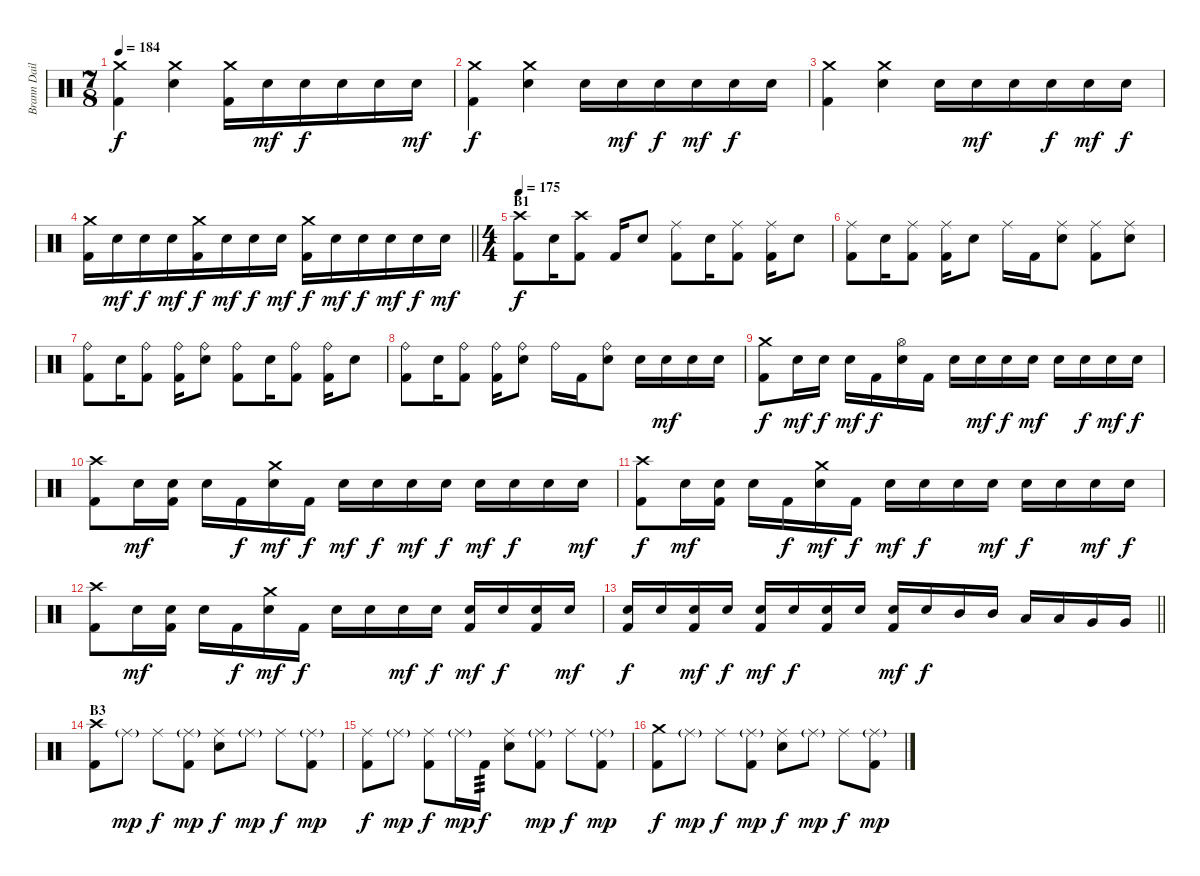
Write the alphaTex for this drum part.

\track ("Brann Dailor" "Brann Dail") {instrument percussion}
\staff {score}
\articulation defaults
\ts (7 8)
\tempo 184
\clef neutral
\ks c
("Crash medium (hit)" "Kick (hit) 2").4{dy f} ("Crash medium (hit)" "Snare (hit) 2").4 ("Crash medium (hit)" "Kick (hit) 2").16 "Snare (hit) 2".16{dy mf} "Snare (hit) 2".16{dy f} "Snare (hit) 2".16 "Snare (hit) 2".16 "Snare (hit) 2".16{dy mf} |
("Crash medium (hit)" "Kick (hit) 2").4{dy f} ("Crash medium (hit)" "Snare (hit) 2").4 "Snare (hit) 2".16 "Snare (hit) 2".16{dy mf} "Snare (hit) 2".16{dy f} "Snare (hit) 2".16{dy mf} "Snare (hit) 2".16{dy f} "Snare (hit) 2".16 |
("Crash medium (hit)" "Kick (hit) 2").4 ("Crash medium (hit)" "Snare (hit) 2").4 "Snare (hit) 2".16 "Snare (hit) 2".16{dy mf} "Snare (hit) 2".16 "Snare (hit) 2".16{dy f} "Snare (hit) 2".16{dy mf} "Snare (hit) 2".16{dy f} |
\barLineRight lightlight
("Crash medium (hit)" "Kick (hit) 2").16 "Snare (hit) 2".16{dy mf} "Snare (hit) 2".16{dy f} "Snare (hit) 2".16{dy mf} ("Crash medium (hit)" "Kick (hit) 2").16{dy f} "Snare (hit) 2".16{dy mf} "Snare (hit) 2".16{dy f} "Snare (hit) 2".16{dy mf} ("Crash medium (hit)" "Kick (hit) 2").16{dy f} "Snare (hit) 2".16{dy mf} "Snare (hit) 2".16{dy f} "Snare (hit) 2".16{dy mf} "Snare (hit) 2".16{dy f} "Snare (hit) 2".16{dy mf} |
\ts (4 4)
\section ("" "B1")
\tempo 175
("Crash high (hit)" "Kick (hit) 2").8{dy f} "Snare (hit) 2".16 ("Crash high (hit)" "Kick (hit) 2").8 "Kick (hit) 2".16 "Snare (hit) 2".8 ("Ride (middle)" "Kick (hit) 2").8 "Snare (hit) 2".16 ("Ride (middle)" "Kick (hit) 2").8 ("Ride (middle)" "Kick (hit) 2").16 "Snare (hit) 2".8 |
("Ride (middle)" "Kick (hit) 2").8 "Snare (hit) 2".16 ("Ride (middle)" "Kick (hit) 2").8 ("Ride (middle)" "Kick (hit) 2").16 "Snare (hit) 2".8 "Ride (middle)".16 "Kick (hit) 2".16 ("Ride (middle)" "Snare (hit) 2").8 ("Ride (middle)" "Kick (hit) 2").8 ("Ride (middle)" "Snare (hit) 2").8 |
("Ride (bell)" "Kick (hit) 2").8 "Snare (hit) 2".16 ("Ride (bell)" "Kick (hit) 2").8 ("Ride (bell)" "Kick (hit) 2").16 ("Ride (bell)" "Snare (hit) 2").8 ("Ride (bell)" "Kick (hit) 2").8 "Snare (hit) 2".16 ("Ride (bell)" "Kick (hit) 2").8 ("Ride (bell)" "Kick (hit) 2").16 "Snare (hit) 2".8 |
("Ride (bell)" "Kick (hit) 2").8 "Snare (hit) 2".16 ("Ride (bell)" "Kick (hit) 2").8 ("Ride (bell)" "Kick (hit) 2").16 ("Ride (bell)" "Snare (hit) 2").8 "Ride (bell)".16 "Kick (hit) 2".16 ("Ride (bell)" "Snare (hit) 2").8 "Snare (hit) 2".16 "Snare (hit) 2".16{dy mf} "Snare (hit) 2".16 "Snare (hit) 2".16 |
("Crash medium (hit)" "Kick (hit) 2").8{dy f} "Snare (hit) 2".16{dy mf} "Snare (hit) 2".16{dy f} "Snare (hit) 2".16{dy mf} "Kick (hit) 2".16{dy f} ("Hi-Hat (open)" "Snare (hit) 2").16 "Kick (hit) 2".16 "Snare (hit) 2".16 "Snare (hit) 2".16{dy mf} "Snare (hit) 2".16{dy f} "Snare (hit) 2".16{dy mf} "Snare (hit) 2".16 "Snare (hit) 2".16{dy f} "Snare (hit) 2".16{dy mf} "Snare (hit) 2".16{dy f} |
("Crash high (hit)" "Kick (hit) 2").8 "Snare (hit) 2".16{dy mf} ("Snare (hit) 2" "Kick (hit) 2").16 "Snare (hit) 2".16 "Kick (hit) 2".16{dy f} ("Crash medium (hit)" "Snare (hit) 2").16{dy mf} "Kick (hit) 2".16{dy f} "Snare (hit) 2".16{dy mf} "Snare (hit) 2".16{dy f} "Snare (hit) 2".16{dy mf} "Snare (hit) 2".16{dy f} "Snare (hit) 2".16{dy mf} "Snare (hit) 2".16{dy f} "Snare (hit) 2".16 "Snare (hit) 2".16{dy mf} |
("Crash high (hit)" "Kick (hit) 2").8{dy f} "Snare (hit) 2".16{dy mf} ("Snare (hit) 2" "Kick (hit) 2").16 "Snare (hit) 2".16 "Kick (hit) 2".16{dy f} ("Crash medium (hit)" "Snare (hit) 2").16{dy mf} "Kick (hit) 2".16{dy f} "Snare (hit) 2".16{dy mf} "Snare (hit) 2".16{dy f} "Snare (hit) 2".16 "Snare (hit) 2".16{dy mf} "Snare (hit) 2".16{dy f} "Snare (hit) 2".16 "Snare (hit) 2".16{dy mf} "Snare (hit) 2".16{dy f} |
("Crash high (hit)" "Kick (hit) 2").8 "Snare (hit) 2".16{dy mf} ("Snare (hit) 2" "Kick (hit) 2").16 "Snare (hit) 2".16 "Kick (hit) 2".16{dy f} ("Crash medium (hit)" "Snare (hit) 2").16{dy mf} "Kick (hit) 2".16{dy f} "Snare (hit) 2".16 "Snare (hit) 2".16 "Snare (hit) 2".16{dy mf} "Snare (hit) 2".16{dy f} ("Snare (hit) 2" "Kick (hit) 2").16{dy mf} "Snare (hit) 2".16{dy f} ("Snare (hit) 2" "Kick (hit) 2").16 "Snare (hit) 2".16{dy mf} |
\barLineRight lightlight
("Snare (hit) 2" "Kick (hit) 2").16{dy f} "Snare (hit) 2".16 ("Snare (hit) 2" "Kick (hit) 2").16{dy mf} "Snare (hit) 2".16{dy f} ("Snare (hit) 2" "Kick (hit) 2").16{dy mf} "Snare (hit) 2".16{dy f} ("Snare (hit) 2" "Kick (hit) 2").16 "Snare (hit) 2".16 ("Snare (hit) 2" "Kick (hit) 2").16{dy mf} "Snare (hit) 2".16{dy f} "Mid Tom (hit)".16 "Mid Tom (hit)".16 "Low Tom (hit)".16 "Low Tom (hit)".16 "Very Low Tom (hit)".16 "Very Low Tom (hit)".16 |
\section ("" "B3")
("Crash high (hit)" "Kick (hit) 2").8 "Ride (middle)"{g}.8{dy mp} "Ride (middle)".8{dy f} ("Ride (middle)"{g} "Kick (hit) 2").8{dy mp} ("Ride (middle)" "Snare (hit) 2").8{dy f} "Ride (middle)"{g}.8{dy mp} "Ride (middle)".8{dy f} ("Ride (middle)"{g} "Kick (hit) 2").8{dy mp} |
("Ride (middle)" "Kick (hit) 2").8{dy f} "Ride (middle)"{g}.8{dy mp} ("Ride (middle)" "Kick (hit) 2").8{dy f} "Ride (middle)"{g}.16{dy mp} "Kick (hit) 2".16{tp 3 dy f} ("Ride (middle)" "Snare (hit) 2").8 ("Ride (middle)"{g} "Kick (hit) 2").8{dy mp} "Ride (middle)".8{dy f} ("Ride (middle)"{g} "Kick (hit) 2").8{dy mp} |
("Crash medium (hit)" "Kick (hit) 2").8{dy f} "Ride (middle)"{g}.8{dy mp} "Ride (middle)".8{dy f} ("Ride (middle)"{g} "Kick (hit) 2").8{dy mp} ("Ride (middle)" "Snare (hit) 2").8{dy f} "Ride (middle)"{g}.8{dy mp} "Ride (middle)".8{dy f} ("Ride (middle)"{g} "Kick (hit) 2").8{dy mp}
